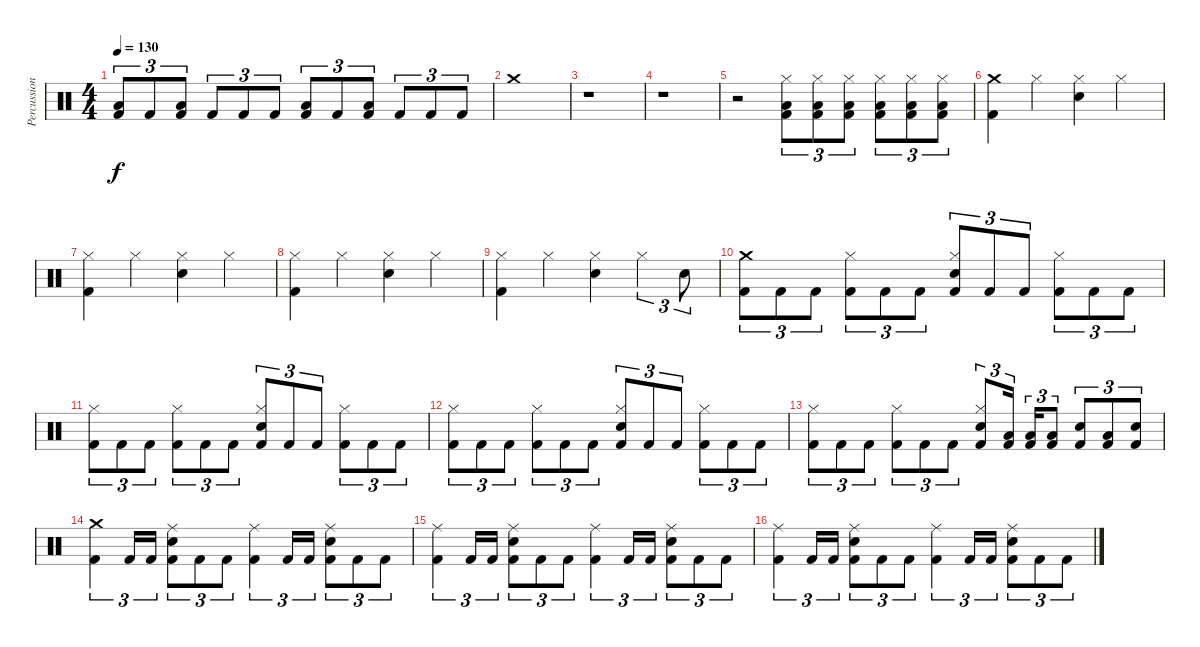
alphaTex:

\track ("Percussions" "Percussion") {instrument percussion}
\staff {score}
\articulation defaults
\ts (4 4)
\tempo 130
\clef neutral
\ks c
("Low Tom (hit)" "Kick (hit) 2").8{tu (3 2) dy f} "Kick (hit) 2".8{tu (3 2)} ("Low Tom (hit)" "Kick (hit) 2").8{tu (3 2)} "Kick (hit) 2".8{tu (3 2)} "Kick (hit) 2".8{tu (3 2)} "Kick (hit) 2".8{tu (3 2)} ("Low Tom (hit)" "Kick (hit) 2").8{tu (3 2)} "Kick (hit) 2".8{tu (3 2)} ("Low Tom (hit)" "Kick (hit) 2").8{tu (3 2)} "Kick (hit) 2".8{tu (3 2)} "Kick (hit) 2".8{tu (3 2)} "Kick (hit) 2".8{tu (3 2)} |
"Crash medium (hit)".1 |
r.1 |
r.1 |
r.2 ("Hi-Hat (closed)" "Low Tom (hit)" "Kick (hit) 2").8{tu (3 2)} ("Hi-Hat (closed)" "Low Tom (hit)" "Kick (hit) 2").8{tu (3 2)} ("Hi-Hat (closed)" "Low Tom (hit)" "Kick (hit) 2").8{tu (3 2)} ("Hi-Hat (closed)" "Low Tom (hit)" "Kick (hit) 2").8{tu (3 2)} ("Hi-Hat (closed)" "Low Tom (hit)" "Kick (hit) 2").8{tu (3 2)} ("Hi-Hat (closed)" "Low Tom (hit)" "Kick (hit) 2").8{tu (3 2)} |
("Crash medium (hit)" "Kick (hit) 2").4 "Hi-Hat (closed)".4 ("Hi-Hat (closed)" "Electric Snare (hit)").4 "Hi-Hat (closed)".4 |
("Hi-Hat (closed)" "Kick (hit) 2").4 "Hi-Hat (closed)".4 ("Hi-Hat (closed)" "Electric Snare (hit)").4 "Hi-Hat (closed)".4 |
("Hi-Hat (closed)" "Kick (hit) 2").4 "Hi-Hat (closed)".4 ("Hi-Hat (closed)" "Electric Snare (hit)").4 "Hi-Hat (closed)".4 |
("Hi-Hat (closed)" "Kick (hit) 2").4 "Hi-Hat (closed)".4 ("Hi-Hat (closed)" "Electric Snare (hit)").4 "Hi-Hat (closed)".4{tu (3 2)} "Electric Snare (hit)".8{tu (3 2)} |
("Crash medium (hit)" "Kick (hit) 2").8{tu (3 2)} "Kick (hit) 2".8{tu (3 2)} "Kick (hit) 2".8{tu (3 2)} ("Hi-Hat (closed)" "Kick (hit) 2").8{tu (3 2)} "Kick (hit) 2".8{tu (3 2)} "Kick (hit) 2".8{tu (3 2)} ("Hi-Hat (closed)" "Electric Snare (hit)" "Kick (hit) 2").8{tu (3 2)} "Kick (hit) 2".8{tu (3 2)} "Kick (hit) 2".8{tu (3 2)} ("Hi-Hat (closed)" "Kick (hit) 2").8{tu (3 2)} "Kick (hit) 2".8{tu (3 2)} "Kick (hit) 2".8{tu (3 2)} |
("Hi-Hat (closed)" "Kick (hit) 2").8{tu (3 2)} "Kick (hit) 2".8{tu (3 2)} "Kick (hit) 2".8{tu (3 2)} ("Hi-Hat (closed)" "Kick (hit) 2").8{tu (3 2)} "Kick (hit) 2".8{tu (3 2)} "Kick (hit) 2".8{tu (3 2)} ("Hi-Hat (closed)" "Electric Snare (hit)" "Kick (hit) 2").8{tu (3 2)} "Kick (hit) 2".8{tu (3 2)} "Kick (hit) 2".8{tu (3 2)} ("Hi-Hat (closed)" "Kick (hit) 2").8{tu (3 2)} "Kick (hit) 2".8{tu (3 2)} "Kick (hit) 2".8{tu (3 2)} |
("Hi-Hat (closed)" "Kick (hit) 2").8{tu (3 2)} "Kick (hit) 2".8{tu (3 2)} "Kick (hit) 2".8{tu (3 2)} ("Hi-Hat (closed)" "Kick (hit) 2").8{tu (3 2)} "Kick (hit) 2".8{tu (3 2)} "Kick (hit) 2".8{tu (3 2)} ("Hi-Hat (closed)" "Electric Snare (hit)" "Kick (hit) 2").8{tu (3 2)} "Kick (hit) 2".8{tu (3 2)} "Kick (hit) 2".8{tu (3 2)} ("Hi-Hat (closed)" "Kick (hit) 2").8{tu (3 2)} "Kick (hit) 2".8{tu (3 2)} "Kick (hit) 2".8{tu (3 2)} |
("Hi-Hat (closed)" "Kick (hit) 2").8{tu (3 2)} "Kick (hit) 2".8{tu (3 2)} "Kick (hit) 2".8{tu (3 2)} ("Hi-Hat (closed)" "Kick (hit) 2").8{tu (3 2)} "Kick (hit) 2".8{tu (3 2)} "Kick (hit) 2".8{tu (3 2)} ("Hi-Hat (closed)" "Electric Snare (hit)" "Kick (hit) 2").8{tu (3 2)} ("Low Tom (hit)" "Kick (hit) 2").16{tu (3 2) beam splitsecondary} ("Low Tom (hit)" "Kick (hit) 2").16{tu (3 2)} ("Low Tom (hit)" "Kick (hit) 2").8{tu (3 2)} ("Electric Snare (hit)" "Kick (hit) 2").8{tu (3 2)} ("Low Tom (hit)" "Kick (hit) 2").8{tu (3 2)} ("Electric Snare (hit)" "Kick (hit) 2").8{tu (3 2)} |
("Crash medium (hit)" "Kick (hit) 2").4{tu (3 2)} "Kick (hit) 2".16{tu (3 2)} "Kick (hit) 2".16{tu (3 2)} ("Ride (middle)" "Electric Snare (hit)" "Kick (hit) 2").8{tu (3 2)} "Kick (hit) 2".8{tu (3 2)} "Kick (hit) 2".8{tu (3 2)} ("Ride (middle)" "Kick (hit) 2").4{tu (3 2)} "Kick (hit) 2".16{tu (3 2)} "Kick (hit) 2".16{tu (3 2)} ("Ride (middle)" "Electric Snare (hit)" "Kick (hit) 2").8{tu (3 2)} "Kick (hit) 2".8{tu (3 2)} "Kick (hit) 2".8{tu (3 2)} |
("Ride (middle)" "Kick (hit) 2").4{tu (3 2)} "Kick (hit) 2".16{tu (3 2)} "Kick (hit) 2".16{tu (3 2)} ("Ride (middle)" "Electric Snare (hit)" "Kick (hit) 2").8{tu (3 2)} "Kick (hit) 2".8{tu (3 2)} "Kick (hit) 2".8{tu (3 2)} ("Ride (middle)" "Kick (hit) 2").4{tu (3 2)} "Kick (hit) 2".16{tu (3 2)} "Kick (hit) 2".16{tu (3 2)} ("Ride (middle)" "Electric Snare (hit)" "Kick (hit) 2").8{tu (3 2)} "Kick (hit) 2".8{tu (3 2)} "Kick (hit) 2".8{tu (3 2)} |
("Ride (middle)" "Kick (hit) 2").4{tu (3 2)} "Kick (hit) 2".16{tu (3 2)} "Kick (hit) 2".16{tu (3 2)} ("Ride (middle)" "Electric Snare (hit)" "Kick (hit) 2").8{tu (3 2)} "Kick (hit) 2".8{tu (3 2)} "Kick (hit) 2".8{tu (3 2)} ("Ride (middle)" "Kick (hit) 2").4{tu (3 2)} "Kick (hit) 2".16{tu (3 2)} "Kick (hit) 2".16{tu (3 2)} ("Ride (middle)" "Electric Snare (hit)" "Kick (hit) 2").8{tu (3 2)} "Kick (hit) 2".8{tu (3 2)} "Kick (hit) 2".8{tu (3 2)}
